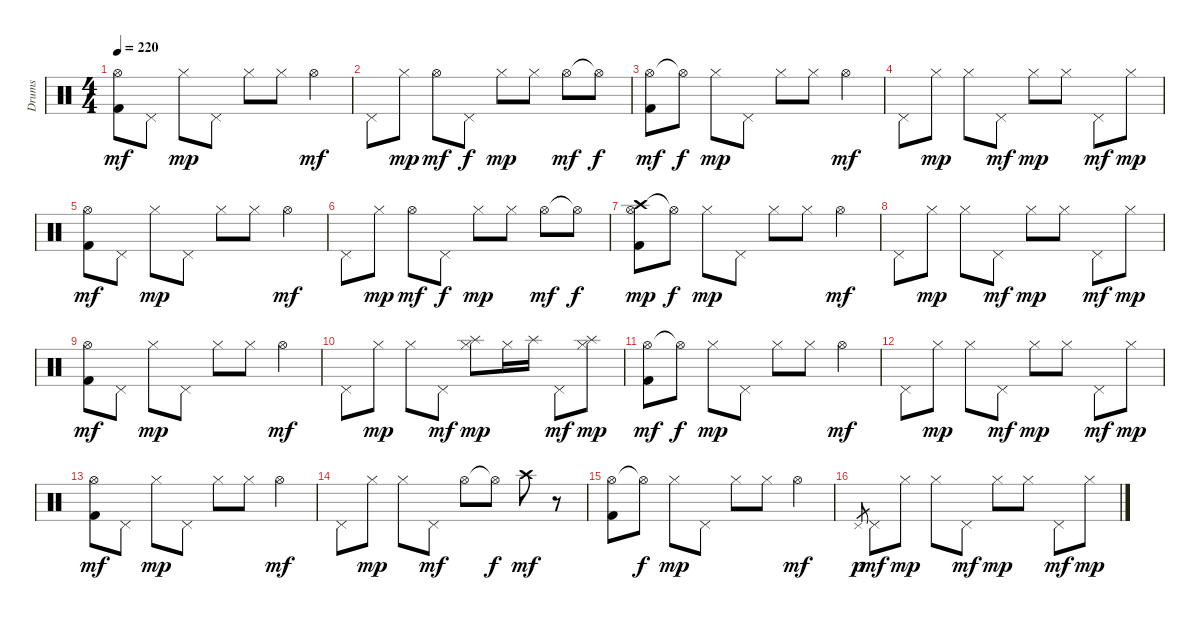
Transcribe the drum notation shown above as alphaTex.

\bracketExtendMode groupsimilarinstruments
\otherSystemsTrackNameOrientation horizontal
\track ("Drumkit" "Drums") {instrument percussion}
\staff {score}
\articulation defaults
\ts (4 4)
\tempo 220
\clef neutral
\ks c
("Hi-Hat (open)" "Kick (hit) 2").8{dy mf beam Down} "Pedal Hi-Hat (hit)".8{beam Down} "Hi-Hat (closed)".8{dy mp beam Down} "Pedal Hi-Hat (hit)".8{beam Down} "Hi-Hat (closed)".8{beam Down} "Hi-Hat (closed)".8{beam Down} "Hi-Hat (open)".4{dy mf beam Down} |
"Pedal Hi-Hat (hit)".8{beam Down} "Hi-Hat (closed)".8{dy mp beam Down} "Hi-Hat (open)".8{dy mf beam Down} "Pedal Hi-Hat (hit)".8{dy f beam Down} "Hi-Hat (closed)".8{dy mp beam Down} "Hi-Hat (closed)".8{beam Down} "Hi-Hat (open)".8{dy mf beam Down} "Hi-Hat (open)"{t}.8{dy f beam Down} |
("Hi-Hat (open)" "Kick (hit) 2").8{dy mf beam Down} "Hi-Hat (open)"{t}.8{dy f beam Down} "Hi-Hat (closed)".8{dy mp beam Down} "Pedal Hi-Hat (hit)".8{beam Down} "Hi-Hat (closed)".8{beam Down} "Hi-Hat (closed)".8{beam Down} "Hi-Hat (open)".4{dy mf beam Down} |
"Pedal Hi-Hat (hit)".8{beam Down} "Hi-Hat (closed)".8{dy mp beam Down} "Hi-Hat (closed)".8{beam Down} "Pedal Hi-Hat (hit)".8{dy mf beam Down} "Hi-Hat (closed)".8{dy mp beam Down} "Hi-Hat (closed)".8{beam Down} "Pedal Hi-Hat (hit)".8{dy mf beam Down} "Hi-Hat (closed)".8{dy mp beam Down} |
("Hi-Hat (open)" "Kick (hit) 2").8{dy mf beam Down} "Pedal Hi-Hat (hit)".8{beam Down} "Hi-Hat (closed)".8{dy mp beam Down} "Pedal Hi-Hat (hit)".8{beam Down} "Hi-Hat (closed)".8{beam Down} "Hi-Hat (closed)".8{beam Down} "Hi-Hat (open)".4{dy mf beam Down} |
"Pedal Hi-Hat (hit)".8{beam Down} "Hi-Hat (closed)".8{dy mp beam Down} "Hi-Hat (open)".8{dy mf beam Down} "Pedal Hi-Hat (hit)".8{dy f beam Down} "Hi-Hat (closed)".8{dy mp beam Down} "Hi-Hat (closed)".8{beam Down} "Hi-Hat (open)".8{dy mf beam Down} "Hi-Hat (open)"{t}.8{dy f beam Down} |
("Crash high (hit)" "Hi-Hat (open)" "Kick (hit) 2").8{dy mp beam Down} "Hi-Hat (open)"{t}.8{dy f beam Down} "Hi-Hat (closed)".8{dy mp beam Down} "Pedal Hi-Hat (hit)".8{beam Down} "Hi-Hat (closed)".8{beam Down} "Hi-Hat (closed)".8{beam Down} "Hi-Hat (open)".4{dy mf beam Down} |
"Pedal Hi-Hat (hit)".8{beam Down} "Hi-Hat (closed)".8{dy mp beam Down} "Hi-Hat (closed)".8{beam Down} "Pedal Hi-Hat (hit)".8{dy mf beam Down} "Hi-Hat (closed)".8{dy mp beam Down} "Hi-Hat (closed)".8{beam Down} "Pedal Hi-Hat (hit)".8{dy mf beam Down} "Hi-Hat (closed)".8{dy mp beam Down} |
("Hi-Hat (open)" "Kick (hit) 2").8{dy mf beam Down} "Pedal Hi-Hat (hit)".8{beam Down} "Hi-Hat (closed)".8{dy mp beam Down} "Pedal Hi-Hat (hit)".8{beam Down} "Hi-Hat (closed)".8{beam Down} "Hi-Hat (closed)".8{beam Down} "Hi-Hat (open)".4{dy mf beam Down} |
"Pedal Hi-Hat (hit)".8{beam Down} "Hi-Hat (closed)".8{dy mp beam Down} "Hi-Hat (closed)".8{beam Down} "Pedal Hi-Hat (hit)".8{dy mf beam Down} ("Splash (hit)" "Hi-Hat (closed)").8{dy mp beam Down} "Hi-Hat (closed)".16{beam Down} "Splash (hit)".16{beam Down} "Pedal Hi-Hat (hit)".8{dy mf beam Down} ("Splash (hit)" "Hi-Hat (closed)").8{dy mp beam Down} |
("Hi-Hat (open)" "Kick (hit) 2").8{dy mf beam Down} "Hi-Hat (open)"{t}.8{dy f beam Down} "Hi-Hat (closed)".8{dy mp beam Down} "Pedal Hi-Hat (hit)".8{beam Down} "Hi-Hat (closed)".8{beam Down} "Hi-Hat (closed)".8{beam Down} "Hi-Hat (open)".4{dy mf beam Down} |
"Pedal Hi-Hat (hit)".8{beam Down} "Hi-Hat (closed)".8{dy mp beam Down} "Hi-Hat (closed)".8{beam Down} "Pedal Hi-Hat (hit)".8{dy mf beam Down} "Hi-Hat (closed)".8{dy mp beam Down} "Hi-Hat (closed)".8{beam Down} "Pedal Hi-Hat (hit)".8{dy mf beam Down} "Hi-Hat (closed)".8{dy mp beam Down} |
("Hi-Hat (open)" "Kick (hit) 2").8{dy mf beam Down} "Pedal Hi-Hat (hit)".8{beam Down} "Hi-Hat (closed)".8{dy mp beam Down} "Pedal Hi-Hat (hit)".8{beam Down} "Hi-Hat (closed)".8{beam Down} "Hi-Hat (closed)".8{beam Down} "Hi-Hat (open)".4{dy mf beam Down} |
"Pedal Hi-Hat (hit)".8{beam Down} "Hi-Hat (closed)".8{dy mp beam Down} "Hi-Hat (closed)".8{beam Down} "Pedal Hi-Hat (hit)".8{dy mf beam Down} "Hi-Hat (open)".8{beam Down} "Hi-Hat (open)"{t}.8{dy f beam Down} "Crash high (hit)".8{dy mf beam Down} r.8{beam Down} |
("Hi-Hat (open)" "Kick (hit) 2").8{beam Down} "Hi-Hat (open)"{t}.8{dy f beam Down} "Hi-Hat (closed)".8{dy mp beam Down} "Pedal Hi-Hat (hit)".8{beam Down} "Hi-Hat (closed)".8{beam Down} "Hi-Hat (closed)".8{beam Down} "Hi-Hat (open)".4{dy mf beam Down} |
"Pedal Hi-Hat (hit)".8{gr dy p beam Up} "Pedal Hi-Hat (hit)".8{dy mf beam Down} "Hi-Hat (closed)".8{dy mp beam Down} "Hi-Hat (closed)".8{beam Down} "Pedal Hi-Hat (hit)".8{dy mf beam Down} "Hi-Hat (closed)".8{dy mp beam Down} "Hi-Hat (closed)".8{beam Down} "Pedal Hi-Hat (hit)".8{dy mf beam Down} "Hi-Hat (closed)".8{dy mp beam Down}
